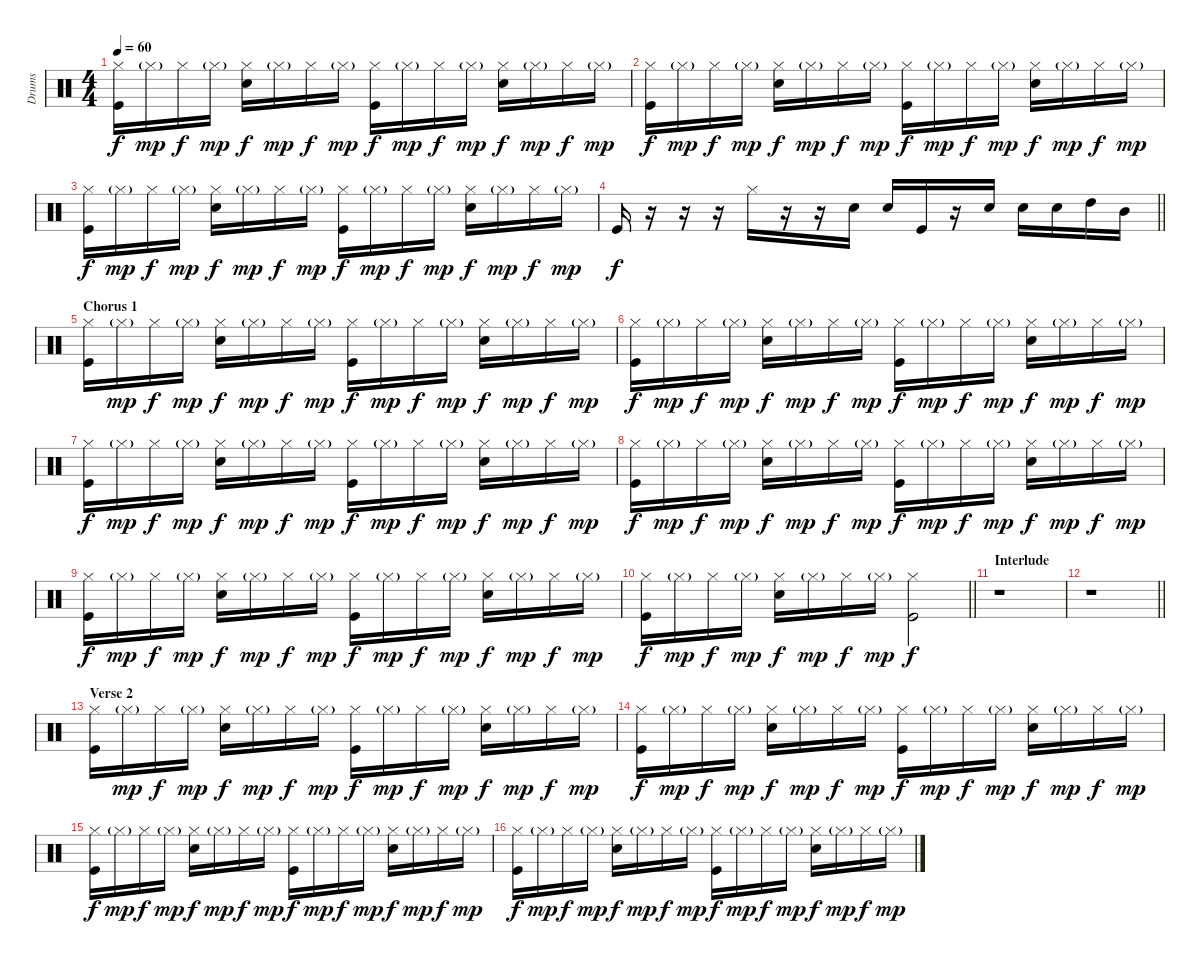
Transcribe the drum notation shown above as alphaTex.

\track ("Drums" "Drums") {instrument percussion}
\staff {score}
\articulation defaults
\ts (4 4)
\tempo 60
\clef neutral
\ks c
("Hi-Hat (closed)" "Kick (hit)").16{dy f} "Hi-Hat (closed)"{g}.16{dy mp} "Hi-Hat (closed)".16{dy f} "Hi-Hat (closed)"{g}.16{dy mp} ("Hi-Hat (closed)" "Snare (hit) 2").16{dy f} "Hi-Hat (closed)"{g}.16{dy mp} "Hi-Hat (closed)".16{dy f} "Hi-Hat (closed)"{g}.16{dy mp} ("Hi-Hat (closed)" "Kick (hit)").16{dy f} "Hi-Hat (closed)"{g}.16{dy mp} "Hi-Hat (closed)".16{dy f} "Hi-Hat (closed)"{g}.16{dy mp} ("Hi-Hat (closed)" "Snare (hit) 2").16{dy f} "Hi-Hat (closed)"{g}.16{dy mp} "Hi-Hat (closed)".16{dy f} "Hi-Hat (closed)"{g}.16{dy mp} |
("Hi-Hat (closed)" "Kick (hit)").16{dy f} "Hi-Hat (closed)"{g}.16{dy mp} "Hi-Hat (closed)".16{dy f} "Hi-Hat (closed)"{g}.16{dy mp} ("Hi-Hat (closed)" "Snare (hit) 2").16{dy f} "Hi-Hat (closed)"{g}.16{dy mp} "Hi-Hat (closed)".16{dy f} "Hi-Hat (closed)"{g}.16{dy mp} ("Hi-Hat (closed)" "Kick (hit)").16{dy f} "Hi-Hat (closed)"{g}.16{dy mp} "Hi-Hat (closed)".16{dy f} "Hi-Hat (closed)"{g}.16{dy mp} ("Hi-Hat (closed)" "Snare (hit) 2").16{dy f} "Hi-Hat (closed)"{g}.16{dy mp} "Hi-Hat (closed)".16{dy f} "Hi-Hat (closed)"{g}.16{dy mp} |
("Hi-Hat (closed)" "Kick (hit)").16{dy f} "Hi-Hat (closed)"{g}.16{dy mp} "Hi-Hat (closed)".16{dy f} "Hi-Hat (closed)"{g}.16{dy mp} ("Hi-Hat (closed)" "Snare (hit) 2").16{dy f} "Hi-Hat (closed)"{g}.16{dy mp} "Hi-Hat (closed)".16{dy f} "Hi-Hat (closed)"{g}.16{dy mp} ("Hi-Hat (closed)" "Kick (hit)").16{dy f} "Hi-Hat (closed)"{g}.16{dy mp} "Hi-Hat (closed)".16{dy f} "Hi-Hat (closed)"{g}.16{dy mp} ("Hi-Hat (closed)" "Snare (hit) 2").16{dy f} "Hi-Hat (closed)"{g}.16{dy mp} "Hi-Hat (closed)".16{dy f} "Hi-Hat (closed)"{g}.16{dy mp} |
\barLineRight lightlight "Kick (hit)".16{dy f}
r.16 r.16 r.16 "Hi-Hat (closed)".16 r.16 r.16 "Snare (hit) 2".16 "Snare (hit) 2".16 "Kick (hit)".16 r.16 "Snare (hit) 2".16 "Snare (hit) 2".16 "Snare (hit) 2".16 "High Tom (hit)".16 "Mid Tom (hit)".16 |
\section ("" "Chorus 1")
("Hi-Hat (closed)" "Kick (hit)").16 "Hi-Hat (closed)"{g}.16{dy mp} "Hi-Hat (closed)".16{dy f} "Hi-Hat (closed)"{g}.16{dy mp} ("Hi-Hat (closed)" "Snare (hit) 2").16{dy f} "Hi-Hat (closed)"{g}.16{dy mp} "Hi-Hat (closed)".16{dy f} "Hi-Hat (closed)"{g}.16{dy mp} ("Hi-Hat (closed)" "Kick (hit)").16{dy f} "Hi-Hat (closed)"{g}.16{dy mp} "Hi-Hat (closed)".16{dy f} "Hi-Hat (closed)"{g}.16{dy mp} ("Hi-Hat (closed)" "Snare (hit) 2").16{dy f} "Hi-Hat (closed)"{g}.16{dy mp} "Hi-Hat (closed)".16{dy f} "Hi-Hat (closed)"{g}.16{dy mp} |
("Hi-Hat (closed)" "Kick (hit)").16{dy f} "Hi-Hat (closed)"{g}.16{dy mp} "Hi-Hat (closed)".16{dy f} "Hi-Hat (closed)"{g}.16{dy mp} ("Hi-Hat (closed)" "Snare (hit) 2").16{dy f} "Hi-Hat (closed)"{g}.16{dy mp} "Hi-Hat (closed)".16{dy f} "Hi-Hat (closed)"{g}.16{dy mp} ("Hi-Hat (closed)" "Kick (hit)").16{dy f} "Hi-Hat (closed)"{g}.16{dy mp} "Hi-Hat (closed)".16{dy f} "Hi-Hat (closed)"{g}.16{dy mp} ("Hi-Hat (closed)" "Snare (hit) 2").16{dy f} "Hi-Hat (closed)"{g}.16{dy mp} "Hi-Hat (closed)".16{dy f} "Hi-Hat (closed)"{g}.16{dy mp} |
("Hi-Hat (closed)" "Kick (hit)").16{dy f} "Hi-Hat (closed)"{g}.16{dy mp} "Hi-Hat (closed)".16{dy f} "Hi-Hat (closed)"{g}.16{dy mp} ("Hi-Hat (closed)" "Snare (hit) 2").16{dy f} "Hi-Hat (closed)"{g}.16{dy mp} "Hi-Hat (closed)".16{dy f} "Hi-Hat (closed)"{g}.16{dy mp} ("Hi-Hat (closed)" "Kick (hit)").16{dy f} "Hi-Hat (closed)"{g}.16{dy mp} "Hi-Hat (closed)".16{dy f} "Hi-Hat (closed)"{g}.16{dy mp} ("Hi-Hat (closed)" "Snare (hit) 2").16{dy f} "Hi-Hat (closed)"{g}.16{dy mp} "Hi-Hat (closed)".16{dy f} "Hi-Hat (closed)"{g}.16{dy mp} |
("Hi-Hat (closed)" "Kick (hit)").16{dy f} "Hi-Hat (closed)"{g}.16{dy mp} "Hi-Hat (closed)".16{dy f} "Hi-Hat (closed)"{g}.16{dy mp} ("Hi-Hat (closed)" "Snare (hit) 2").16{dy f} "Hi-Hat (closed)"{g}.16{dy mp} "Hi-Hat (closed)".16{dy f} "Hi-Hat (closed)"{g}.16{dy mp} ("Hi-Hat (closed)" "Kick (hit)").16{dy f} "Hi-Hat (closed)"{g}.16{dy mp} "Hi-Hat (closed)".16{dy f} "Hi-Hat (closed)"{g}.16{dy mp} ("Hi-Hat (closed)" "Snare (hit) 2").16{dy f} "Hi-Hat (closed)"{g}.16{dy mp} "Hi-Hat (closed)".16{dy f} "Hi-Hat (closed)"{g}.16{dy mp} |
("Hi-Hat (closed)" "Kick (hit)").16{dy f} "Hi-Hat (closed)"{g}.16{dy mp} "Hi-Hat (closed)".16{dy f} "Hi-Hat (closed)"{g}.16{dy mp} ("Hi-Hat (closed)" "Snare (hit) 2").16{dy f} "Hi-Hat (closed)"{g}.16{dy mp} "Hi-Hat (closed)".16{dy f} "Hi-Hat (closed)"{g}.16{dy mp} ("Hi-Hat (closed)" "Kick (hit)").16{dy f} "Hi-Hat (closed)"{g}.16{dy mp} "Hi-Hat (closed)".16{dy f} "Hi-Hat (closed)"{g}.16{dy mp} ("Hi-Hat (closed)" "Snare (hit) 2").16{dy f} "Hi-Hat (closed)"{g}.16{dy mp} "Hi-Hat (closed)".16{dy f} "Hi-Hat (closed)"{g}.16{dy mp} |
\barLineRight lightlight
("Hi-Hat (closed)" "Kick (hit)").16{dy f} "Hi-Hat (closed)"{g}.16{dy mp} "Hi-Hat (closed)".16{dy f} "Hi-Hat (closed)"{g}.16{dy mp} ("Hi-Hat (closed)" "Snare (hit) 2").16{dy f} "Hi-Hat (closed)"{g}.16{dy mp} "Hi-Hat (closed)".16{dy f} "Hi-Hat (closed)"{g}.16{dy mp} ("Hi-Hat (closed)" "Kick (hit)").2{dy f} |
\section ("" "Interlude")
r.1 |
\barLineRight lightlight
r.1 |
\section ("" "Verse 2")
("Hi-Hat (closed)" "Kick (hit)").16 "Hi-Hat (closed)"{g}.16{dy mp} "Hi-Hat (closed)".16{dy f} "Hi-Hat (closed)"{g}.16{dy mp} ("Hi-Hat (closed)" "Snare (hit) 2").16{dy f} "Hi-Hat (closed)"{g}.16{dy mp} "Hi-Hat (closed)".16{dy f} "Hi-Hat (closed)"{g}.16{dy mp} ("Hi-Hat (closed)" "Kick (hit)").16{dy f} "Hi-Hat (closed)"{g}.16{dy mp} "Hi-Hat (closed)".16{dy f} "Hi-Hat (closed)"{g}.16{dy mp} ("Hi-Hat (closed)" "Snare (hit) 2").16{dy f} "Hi-Hat (closed)"{g}.16{dy mp} "Hi-Hat (closed)".16{dy f} "Hi-Hat (closed)"{g}.16{dy mp} |
("Hi-Hat (closed)" "Kick (hit)").16{dy f} "Hi-Hat (closed)"{g}.16{dy mp} "Hi-Hat (closed)".16{dy f} "Hi-Hat (closed)"{g}.16{dy mp} ("Hi-Hat (closed)" "Snare (hit) 2").16{dy f} "Hi-Hat (closed)"{g}.16{dy mp} "Hi-Hat (closed)".16{dy f} "Hi-Hat (closed)"{g}.16{dy mp} ("Hi-Hat (closed)" "Kick (hit)").16{dy f} "Hi-Hat (closed)"{g}.16{dy mp} "Hi-Hat (closed)".16{dy f} "Hi-Hat (closed)"{g}.16{dy mp} ("Hi-Hat (closed)" "Snare (hit) 2").16{dy f} "Hi-Hat (closed)"{g}.16{dy mp} "Hi-Hat (closed)".16{dy f} "Hi-Hat (closed)"{g}.16{dy mp} |
("Hi-Hat (closed)" "Kick (hit)").16{dy f} "Hi-Hat (closed)"{g}.16{dy mp} "Hi-Hat (closed)".16{dy f} "Hi-Hat (closed)"{g}.16{dy mp} ("Hi-Hat (closed)" "Snare (hit) 2").16{dy f} "Hi-Hat (closed)"{g}.16{dy mp} "Hi-Hat (closed)".16{dy f} "Hi-Hat (closed)"{g}.16{dy mp} ("Hi-Hat (closed)" "Kick (hit)").16{dy f} "Hi-Hat (closed)"{g}.16{dy mp} "Hi-Hat (closed)".16{dy f} "Hi-Hat (closed)"{g}.16{dy mp} ("Hi-Hat (closed)" "Snare (hit) 2").16{dy f} "Hi-Hat (closed)"{g}.16{dy mp} "Hi-Hat (closed)".16{dy f} "Hi-Hat (closed)"{g}.16{dy mp} |
("Hi-Hat (closed)" "Kick (hit)").16{dy f} "Hi-Hat (closed)"{g}.16{dy mp} "Hi-Hat (closed)".16{dy f} "Hi-Hat (closed)"{g}.16{dy mp} ("Hi-Hat (closed)" "Snare (hit) 2").16{dy f} "Hi-Hat (closed)"{g}.16{dy mp} "Hi-Hat (closed)".16{dy f} "Hi-Hat (closed)"{g}.16{dy mp} ("Hi-Hat (closed)" "Kick (hit)").16{dy f} "Hi-Hat (closed)"{g}.16{dy mp} "Hi-Hat (closed)".16{dy f} "Hi-Hat (closed)"{g}.16{dy mp} ("Hi-Hat (closed)" "Snare (hit) 2").16{dy f} "Hi-Hat (closed)"{g}.16{dy mp} "Hi-Hat (closed)".16{dy f} "Hi-Hat (closed)"{g}.16{dy mp}
